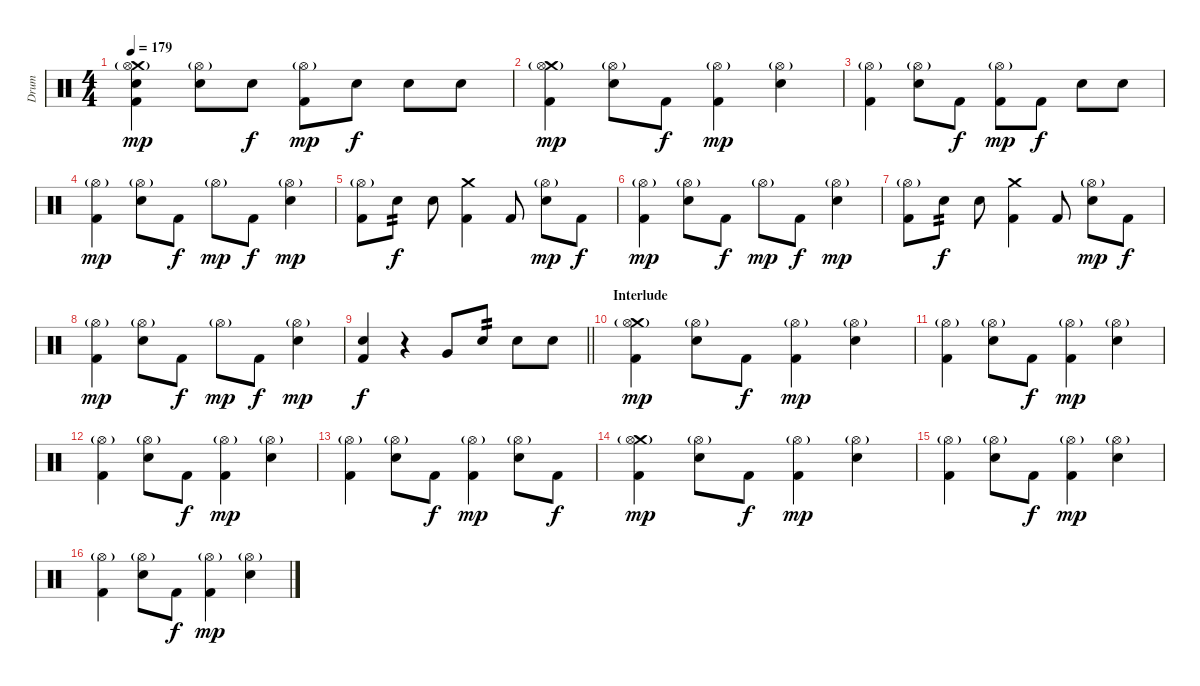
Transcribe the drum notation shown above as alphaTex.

\track ("Drum" "Drum") {instrument percussion}
\staff {score}
\articulation defaults
\ts (4 4)
\tempo 179
\clef neutral
\ks c
("Crash medium (hit)" "Hi-Hat (open)"{g} "Electric Snare (hit)" "Kick (hit) 2").4{dy mp} ("Hi-Hat (open)"{g} "Electric Snare (hit)").8 "Electric Snare (hit)".8{dy f} ("Hi-Hat (open)"{g} "Kick (hit) 2").8{dy mp} "Electric Snare (hit)".8{dy f} "Electric Snare (hit)".8 "Electric Snare (hit)".8 |
("Crash medium (hit)" "Hi-Hat (open)"{g} "Kick (hit) 2").4{dy mp} ("Hi-Hat (open)"{g} "Electric Snare (hit)").8 "Kick (hit) 2".8{dy f} ("Hi-Hat (open)"{g} "Kick (hit) 2").4{dy mp} ("Hi-Hat (open)"{g} "Electric Snare (hit)").4 |
("Hi-Hat (open)"{g} "Kick (hit) 2").4 ("Hi-Hat (open)"{g} "Electric Snare (hit)").8 "Kick (hit) 2".8{dy f} ("Hi-Hat (open)"{g} "Kick (hit) 2").8{dy mp} "Kick (hit) 2".8{dy f} "Electric Snare (hit)".8 "Electric Snare (hit)".8 |
("Hi-Hat (open)"{g} "Kick (hit) 2").4{dy mp} ("Hi-Hat (open)"{g} "Electric Snare (hit)").8 "Kick (hit) 2".8{dy f} "Hi-Hat (open)"{g}.8{dy mp} "Kick (hit) 2".8{dy f} ("Hi-Hat (open)"{g} "Electric Snare (hit)").4{dy mp} |
("Hi-Hat (open)"{g} "Kick (hit) 2").8 "Electric Snare (hit)".8{tp 2 dy f} "Electric Snare (hit)".8 ("Crash medium (hit)" "Kick (hit) 2").4 "Kick (hit) 2".8 ("Hi-Hat (open)"{g} "Electric Snare (hit)").8{dy mp} "Kick (hit) 2".8{dy f} |
("Hi-Hat (open)"{g} "Kick (hit) 2").4{dy mp} ("Hi-Hat (open)"{g} "Electric Snare (hit)").8 "Kick (hit) 2".8{dy f} "Hi-Hat (open)"{g}.8{dy mp} "Kick (hit) 2".8{dy f} ("Hi-Hat (open)"{g} "Electric Snare (hit)").4{dy mp} |
("Hi-Hat (open)"{g} "Kick (hit) 2").8 "Electric Snare (hit)".8{tp 2 dy f} "Electric Snare (hit)".8 ("Crash medium (hit)" "Kick (hit) 2").4 "Kick (hit) 2".8 ("Hi-Hat (open)"{g} "Electric Snare (hit)").8{dy mp} "Kick (hit) 2".8{dy f} |
("Hi-Hat (open)"{g} "Kick (hit) 2").4{dy mp} ("Hi-Hat (open)"{g} "Electric Snare (hit)").8 "Kick (hit) 2".8{dy f} "Hi-Hat (open)"{g}.8{dy mp} "Kick (hit) 2".8{dy f} ("Hi-Hat (open)"{g} "Electric Snare (hit)").4{dy mp} |
\barLineRight lightlight
("Electric Snare (hit)" "Kick (hit) 2").4{dy f} r.4 "Very Low Tom (hit)".8 "Electric Snare (hit)".8{tp 2} "Electric Snare (hit)".8 "Electric Snare (hit)".8 |
\section ("" "Interlude")
("Crash medium (hit)" "Hi-Hat (open)"{g} "Kick (hit) 2").4{dy mp} ("Hi-Hat (open)"{g} "Electric Snare (hit)").8 "Kick (hit) 2".8{dy f} ("Hi-Hat (open)"{g} "Kick (hit) 2").4{dy mp} ("Hi-Hat (open)"{g} "Electric Snare (hit)").4 |
("Hi-Hat (open)"{g} "Kick (hit) 2").4 ("Hi-Hat (open)"{g} "Electric Snare (hit)").8 "Kick (hit) 2".8{dy f} ("Hi-Hat (open)"{g} "Kick (hit) 2").4{dy mp} ("Hi-Hat (open)"{g} "Electric Snare (hit)").4 |
("Hi-Hat (open)"{g} "Kick (hit) 2").4 ("Hi-Hat (open)"{g} "Electric Snare (hit)").8 "Kick (hit) 2".8{dy f} ("Hi-Hat (open)"{g} "Kick (hit) 2").4{dy mp} ("Hi-Hat (open)"{g} "Electric Snare (hit)").4 |
("Hi-Hat (open)"{g} "Kick (hit) 2").4 ("Hi-Hat (open)"{g} "Electric Snare (hit)").8 "Kick (hit) 2".8{dy f} ("Hi-Hat (open)"{g} "Kick (hit) 2").4{dy mp} ("Hi-Hat (open)"{g} "Electric Snare (hit)").8 "Kick (hit) 2".8{dy f} |
("Crash medium (hit)" "Hi-Hat (open)"{g} "Kick (hit) 2").4{dy mp} ("Hi-Hat (open)"{g} "Electric Snare (hit)").8 "Kick (hit) 2".8{dy f} ("Hi-Hat (open)"{g} "Kick (hit) 2").4{dy mp} ("Hi-Hat (open)"{g} "Electric Snare (hit)").4 |
("Hi-Hat (open)"{g} "Kick (hit) 2").4 ("Hi-Hat (open)"{g} "Electric Snare (hit)").8 "Kick (hit) 2".8{dy f} ("Hi-Hat (open)"{g} "Kick (hit) 2").4{dy mp} ("Hi-Hat (open)"{g} "Electric Snare (hit)").4 |
("Hi-Hat (open)"{g} "Kick (hit) 2").4 ("Hi-Hat (open)"{g} "Electric Snare (hit)").8 "Kick (hit) 2".8{dy f} ("Hi-Hat (open)"{g} "Kick (hit) 2").4{dy mp} ("Hi-Hat (open)"{g} "Electric Snare (hit)").4
